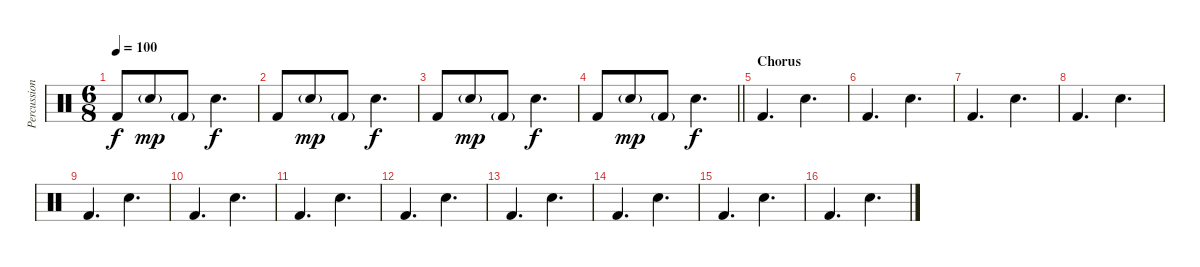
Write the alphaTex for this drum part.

\track ("Percussion" "Percussion") {instrument percussion}
\staff {score}
\articulation defaults
\ts (6 8)
\tempo 100
\clef neutral
\ks c "Kick (hit) 2".8{dy f} "Snare (hit) 2"{g}.8{dy mp} "Kick (hit) 2"{g}.8 "Snare (hit) 2".4{d dy f}
|
"Kick (hit) 2".8 "Snare (hit) 2"{g}.8{dy mp} "Kick (hit) 2"{g}.8 "Snare (hit) 2".4{d dy f} |
"Kick (hit) 2".8 "Snare (hit) 2"{g}.8{dy mp} "Kick (hit) 2"{g}.8 "Snare (hit) 2".4{d dy f} |
\barLineRight lightlight "Kick (hit) 2".8 "Snare (hit) 2"{g}.8{dy mp} "Kick (hit) 2"{g}.8 "Snare (hit) 2".4{d dy f}
|
\section ("" "Chorus")
"Kick (hit) 2".4{d} "Snare (hit) 2".4{d} |
"Kick (hit) 2".4{d} "Snare (hit) 2".4{d} |
"Kick (hit) 2".4{d} "Snare (hit) 2".4{d} |
"Kick (hit) 2".4{d} "Snare (hit) 2".4{d} |
"Kick (hit) 2".4{d} "Snare (hit) 2".4{d} |
"Kick (hit) 2".4{d} "Snare (hit) 2".4{d} |
"Kick (hit) 2".4{d} "Snare (hit) 2".4{d} |
"Kick (hit) 2".4{d} "Snare (hit) 2".4{d} |
"Kick (hit) 2".4{d} "Snare (hit) 2".4{d} |
"Kick (hit) 2".4{d} "Snare (hit) 2".4{d} |
"Kick (hit) 2".4{d} "Snare (hit) 2".4{d} |
"Kick (hit) 2".4{d} "Snare (hit) 2".4{d}
